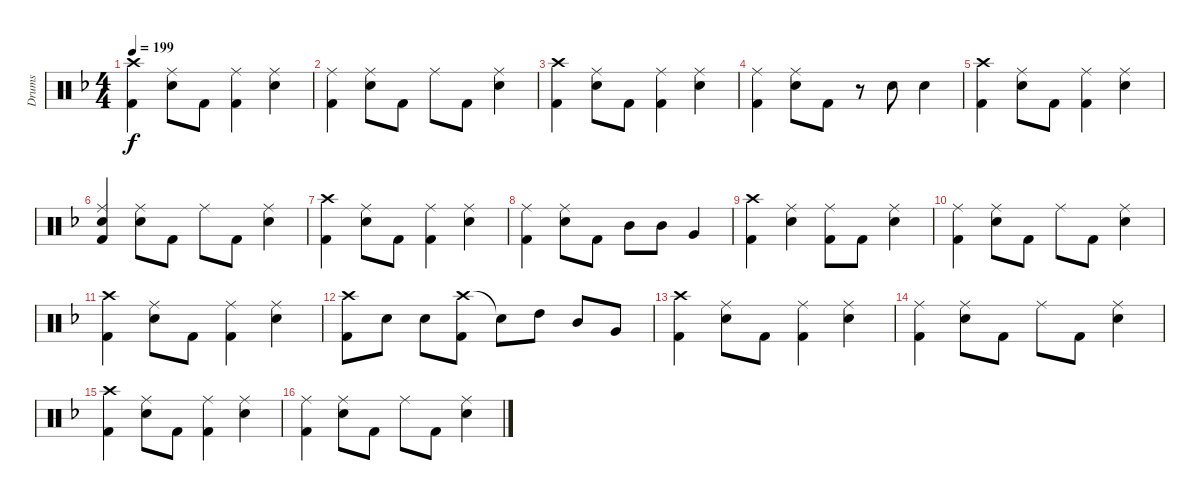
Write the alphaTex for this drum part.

\track ("Drums" "Drums") {instrument percussion}
\staff {score}
\articulation defaults
\ts (4 4)
\tempo 199
\clef neutral
\ks f
("Crash high (hit)" "Kick (hit) 2").4{dy f} ("Ride (middle)" "Snare (hit) 2").8 "Kick (hit) 2".8 ("Ride (middle)" "Kick (hit) 2").4 ("Ride (middle)" "Snare (hit) 2").4 |
("Ride (middle)" "Kick (hit) 2").4 ("Ride (middle)" "Snare (hit) 2").8 "Kick (hit) 2".8 "Ride (middle)".8 "Kick (hit) 2".8 ("Ride (middle)" "Snare (hit) 2").4 |
("Crash high (hit)" "Kick (hit) 2").4 ("Ride (middle)" "Snare (hit) 2").8 "Kick (hit) 2".8 ("Ride (middle)" "Kick (hit) 2").4 ("Ride (middle)" "Snare (hit) 2").4 |
("Ride (middle)" "Kick (hit) 2").4 ("Ride (middle)" "Snare (hit) 2").8 "Kick (hit) 2".8 r.8 "Snare (hit) 2".8 "Snare (hit) 2".4 |
("Crash high (hit)" "Kick (hit) 2").4 ("Ride (middle)" "Snare (hit) 2").8 "Kick (hit) 2".8 ("Ride (middle)" "Kick (hit) 2").4 ("Ride (middle)" "Snare (hit) 2").4 |
("Ride (middle)" "Snare (hit) 2" "Kick (hit) 2").4 ("Ride (middle)" "Snare (hit) 2").8 "Kick (hit) 2".8 "Ride (middle)".8 "Kick (hit) 2".8 ("Ride (middle)" "Snare (hit) 2").4 |
("Crash high (hit)" "Kick (hit) 2").4 ("Ride (middle)" "Snare (hit) 2").8 "Kick (hit) 2".8 ("Ride (middle)" "Kick (hit) 2").4 ("Ride (middle)" "Snare (hit) 2").4 |
("Ride (middle)" "Kick (hit) 2").4 ("Ride (middle)" "Snare (hit) 2").8 "Kick (hit) 2".8 "Mid Tom (hit)".8 "Mid Tom (hit)".8 "Very Low Tom (hit)".4 |
("Crash high (hit)" "Kick (hit) 2").4 ("Ride (middle)" "Snare (hit) 2").4 ("Ride (middle)" "Kick (hit) 2").8 "Kick (hit) 2".8 ("Ride (middle)" "Snare (hit) 2").4 |
("Ride (middle)" "Kick (hit) 2").4 ("Ride (middle)" "Snare (hit) 2").8 "Kick (hit) 2".8 "Ride (middle)".8 "Kick (hit) 2".8 ("Ride (middle)" "Snare (hit) 2").4 |
("Crash high (hit)" "Kick (hit) 2").4 ("Ride (middle)" "Snare (hit) 2").8 "Kick (hit) 2".8 ("Ride (middle)" "Kick (hit) 2").4 ("Ride (middle)" "Snare (hit) 2").4 |
("Crash high (hit)" "Kick (hit) 2").8 "Snare (hit) 2".8 "Snare (hit) 2".8 ("Crash high (hit)" "Kick (hit) 2").8 "Snare (hit)"{t}.8 "High Tom (hit)".8 "Mid Tom (hit)".8 "Very Low Tom (hit)".8 |
("Crash high (hit)" "Kick (hit) 2").4 ("Ride (middle)" "Snare (hit) 2").8 "Kick (hit) 2".8 ("Ride (middle)" "Kick (hit) 2").4 ("Ride (middle)" "Snare (hit) 2").4 |
("Ride (middle)" "Kick (hit) 2").4 ("Ride (middle)" "Snare (hit) 2").8 "Kick (hit) 2".8 "Ride (middle)".8 "Kick (hit) 2".8 ("Ride (middle)" "Snare (hit) 2").4 |
("Crash high (hit)" "Kick (hit) 2").4 ("Ride (middle)" "Snare (hit) 2").8 "Kick (hit) 2".8 ("Ride (middle)" "Kick (hit) 2").4 ("Ride (middle)" "Snare (hit) 2").4 |
("Ride (middle)" "Kick (hit) 2").4 ("Ride (middle)" "Snare (hit) 2").8 "Kick (hit) 2".8 "Ride (middle)".8 "Kick (hit) 2".8 ("Ride (middle)" "Snare (hit) 2").4
